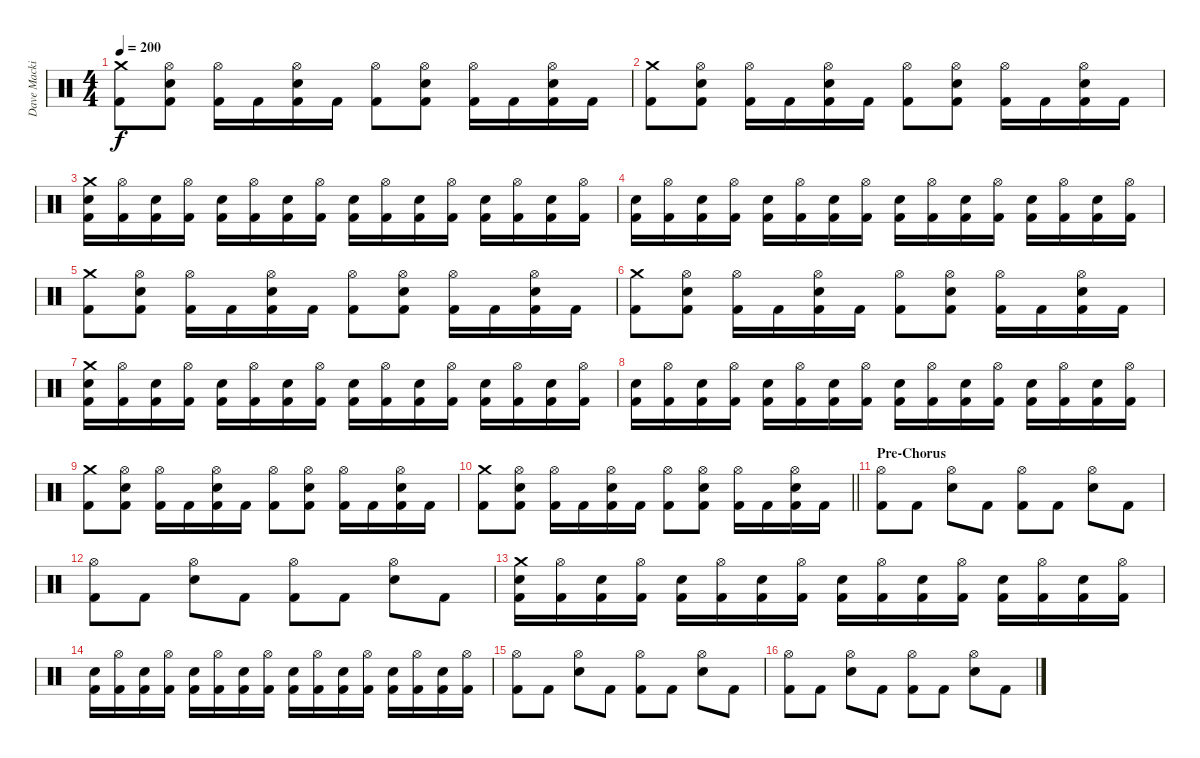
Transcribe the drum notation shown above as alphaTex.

\track ("Dave Mackintosh | Drums" "Dave Macki") {instrument percussion}
\staff {score}
\articulation defaults
\ts (4 4)
\tempo 200
\clef neutral
\ks c
("Crash medium (hit)" "Kick (hit) 2").8{dy f} ("Hi-Hat (open)" "Snare (hit) 2" "Kick (hit) 2").8 ("Hi-Hat (open)" "Kick (hit) 2").16 "Kick (hit) 2".16 ("Hi-Hat (open)" "Snare (hit) 2" "Kick (hit) 2").16 "Kick (hit) 2".16 ("Hi-Hat (open)" "Kick (hit) 2").8 ("Hi-Hat (open)" "Snare (hit) 2" "Kick (hit) 2").8 ("Hi-Hat (open)" "Kick (hit) 2").16 "Kick (hit) 2".16 ("Hi-Hat (open)" "Snare (hit) 2" "Kick (hit) 2").16 "Kick (hit) 2".16 |
("Crash medium (hit)" "Kick (hit) 2").8 ("Hi-Hat (open)" "Snare (hit) 2" "Kick (hit) 2").8 ("Hi-Hat (open)" "Kick (hit) 2").16 "Kick (hit) 2".16 ("Hi-Hat (open)" "Snare (hit) 2" "Kick (hit) 2").16 "Kick (hit) 2".16 ("Hi-Hat (open)" "Kick (hit) 2").8 ("Hi-Hat (open)" "Snare (hit) 2" "Kick (hit) 2").8 ("Hi-Hat (open)" "Kick (hit) 2").16 "Kick (hit) 2".16 ("Hi-Hat (open)" "Snare (hit) 2" "Kick (hit) 2").16 "Kick (hit) 2".16 |
("Crash medium (hit)" "Snare (hit) 2" "Kick (hit) 2").16 ("Hi-Hat (open)" "Kick (hit) 2").16 ("Snare (hit) 2" "Kick (hit) 2").16 ("Hi-Hat (open)" "Kick (hit) 2").16 ("Snare (hit) 2" "Kick (hit) 2").16 ("Hi-Hat (open)" "Kick (hit) 2").16 ("Snare (hit) 2" "Kick (hit) 2").16 ("Hi-Hat (open)" "Kick (hit) 2").16 ("Snare (hit) 2" "Kick (hit) 2").16 ("Hi-Hat (open)" "Kick (hit) 2").16 ("Snare (hit) 2" "Kick (hit) 2").16 ("Hi-Hat (open)" "Kick (hit) 2").16 ("Snare (hit) 2" "Kick (hit) 2").16 ("Hi-Hat (open)" "Kick (hit) 2").16 ("Snare (hit) 2" "Kick (hit) 2").16 ("Hi-Hat (open)" "Kick (hit) 2").16 |
("Snare (hit) 2" "Kick (hit) 2").16 ("Hi-Hat (open)" "Kick (hit) 2").16 ("Snare (hit) 2" "Kick (hit) 2").16 ("Hi-Hat (open)" "Kick (hit) 2").16 ("Snare (hit) 2" "Kick (hit) 2").16 ("Hi-Hat (open)" "Kick (hit) 2").16 ("Snare (hit) 2" "Kick (hit) 2").16 ("Hi-Hat (open)" "Kick (hit) 2").16 ("Snare (hit) 2" "Kick (hit) 2").16 ("Hi-Hat (open)" "Kick (hit) 2").16 ("Snare (hit) 2" "Kick (hit) 2").16 ("Hi-Hat (open)" "Kick (hit) 2").16 ("Snare (hit) 2" "Kick (hit) 2").16 ("Hi-Hat (open)" "Kick (hit) 2").16 ("Snare (hit) 2" "Kick (hit) 2").16 ("Hi-Hat (open)" "Kick (hit) 2").16 |
("Crash medium (hit)" "Kick (hit) 2").8 ("Hi-Hat (open)" "Snare (hit) 2" "Kick (hit) 2").8 ("Hi-Hat (open)" "Kick (hit) 2").16 "Kick (hit) 2".16 ("Hi-Hat (open)" "Snare (hit) 2" "Kick (hit) 2").16 "Kick (hit) 2".16 ("Hi-Hat (open)" "Kick (hit) 2").8 ("Hi-Hat (open)" "Snare (hit) 2" "Kick (hit) 2").8 ("Hi-Hat (open)" "Kick (hit) 2").16 "Kick (hit) 2".16 ("Hi-Hat (open)" "Snare (hit) 2" "Kick (hit) 2").16 "Kick (hit) 2".16 |
("Crash medium (hit)" "Kick (hit) 2").8 ("Hi-Hat (open)" "Snare (hit) 2" "Kick (hit) 2").8 ("Hi-Hat (open)" "Kick (hit) 2").16 "Kick (hit) 2".16 ("Hi-Hat (open)" "Snare (hit) 2" "Kick (hit) 2").16 "Kick (hit) 2".16 ("Hi-Hat (open)" "Kick (hit) 2").8 ("Hi-Hat (open)" "Snare (hit) 2" "Kick (hit) 2").8 ("Hi-Hat (open)" "Kick (hit) 2").16 "Kick (hit) 2".16 ("Hi-Hat (open)" "Snare (hit) 2" "Kick (hit) 2").16 "Kick (hit) 2".16 |
("Crash medium (hit)" "Snare (hit) 2" "Kick (hit) 2").16 ("Hi-Hat (open)" "Kick (hit) 2").16 ("Snare (hit) 2" "Kick (hit) 2").16 ("Hi-Hat (open)" "Kick (hit) 2").16 ("Snare (hit) 2" "Kick (hit) 2").16 ("Hi-Hat (open)" "Kick (hit) 2").16 ("Snare (hit) 2" "Kick (hit) 2").16 ("Hi-Hat (open)" "Kick (hit) 2").16 ("Snare (hit) 2" "Kick (hit) 2").16 ("Hi-Hat (open)" "Kick (hit) 2").16 ("Snare (hit) 2" "Kick (hit) 2").16 ("Hi-Hat (open)" "Kick (hit) 2").16 ("Snare (hit) 2" "Kick (hit) 2").16 ("Hi-Hat (open)" "Kick (hit) 2").16 ("Snare (hit) 2" "Kick (hit) 2").16 ("Hi-Hat (open)" "Kick (hit) 2").16 |
("Snare (hit) 2" "Kick (hit) 2").16 ("Hi-Hat (open)" "Kick (hit) 2").16 ("Snare (hit) 2" "Kick (hit) 2").16 ("Hi-Hat (open)" "Kick (hit) 2").16 ("Snare (hit) 2" "Kick (hit) 2").16 ("Hi-Hat (open)" "Kick (hit) 2").16 ("Snare (hit) 2" "Kick (hit) 2").16 ("Hi-Hat (open)" "Kick (hit) 2").16 ("Snare (hit) 2" "Kick (hit) 2").16 ("Hi-Hat (open)" "Kick (hit) 2").16 ("Snare (hit) 2" "Kick (hit) 2").16 ("Hi-Hat (open)" "Kick (hit) 2").16 ("Snare (hit) 2" "Kick (hit) 2").16 ("Hi-Hat (open)" "Kick (hit) 2").16 ("Snare (hit) 2" "Kick (hit) 2").16 ("Hi-Hat (open)" "Kick (hit) 2").16 |
("Crash medium (hit)" "Kick (hit) 2").8 ("Hi-Hat (open)" "Snare (hit) 2" "Kick (hit) 2").8 ("Hi-Hat (open)" "Kick (hit) 2").16 "Kick (hit) 2".16 ("Hi-Hat (open)" "Snare (hit) 2" "Kick (hit) 2").16 "Kick (hit) 2".16 ("Hi-Hat (open)" "Kick (hit) 2").8 ("Hi-Hat (open)" "Snare (hit) 2" "Kick (hit) 2").8 ("Hi-Hat (open)" "Kick (hit) 2").16 "Kick (hit) 2".16 ("Hi-Hat (open)" "Snare (hit) 2" "Kick (hit) 2").16 "Kick (hit) 2".16 |
\barLineRight lightlight
("Crash medium (hit)" "Kick (hit) 2").8 ("Hi-Hat (open)" "Snare (hit) 2" "Kick (hit) 2").8 ("Hi-Hat (open)" "Kick (hit) 2").16 "Kick (hit) 2".16 ("Hi-Hat (open)" "Snare (hit) 2" "Kick (hit) 2").16 "Kick (hit) 2".16 ("Hi-Hat (open)" "Kick (hit) 2").8 ("Hi-Hat (open)" "Snare (hit) 2" "Kick (hit) 2").8 ("Hi-Hat (open)" "Kick (hit) 2").16 "Kick (hit) 2".16 ("Hi-Hat (open)" "Snare (hit) 2" "Kick (hit) 2").16 "Kick (hit) 2".16 |
\section ("" "Pre-Chorus")
("Hi-Hat (open)" "Kick (hit) 2").8 "Kick (hit) 2".8 ("Hi-Hat (open)" "Snare (hit) 2").8 "Kick (hit) 2".8 ("Hi-Hat (open)" "Kick (hit) 2").8 "Kick (hit) 2".8 ("Hi-Hat (open)" "Snare (hit) 2").8 "Kick (hit) 2".8 |
("Hi-Hat (open)" "Kick (hit) 2").8 "Kick (hit) 2".8 ("Hi-Hat (open)" "Snare (hit) 2").8 "Kick (hit) 2".8 ("Hi-Hat (open)" "Kick (hit) 2").8 "Kick (hit) 2".8 ("Hi-Hat (open)" "Snare (hit) 2").8 "Kick (hit) 2".8 |
("Crash medium (hit)" "Snare (hit) 2" "Kick (hit) 2").16 ("Hi-Hat (open)" "Kick (hit) 2").16 ("Snare (hit) 2" "Kick (hit) 2").16 ("Hi-Hat (open)" "Kick (hit) 2").16 ("Snare (hit) 2" "Kick (hit) 2").16 ("Hi-Hat (open)" "Kick (hit) 2").16 ("Snare (hit) 2" "Kick (hit) 2").16 ("Hi-Hat (open)" "Kick (hit) 2").16 ("Snare (hit) 2" "Kick (hit) 2").16 ("Hi-Hat (open)" "Kick (hit) 2").16 ("Snare (hit) 2" "Kick (hit) 2").16 ("Hi-Hat (open)" "Kick (hit) 2").16 ("Snare (hit) 2" "Kick (hit) 2").16 ("Hi-Hat (open)" "Kick (hit) 2").16 ("Snare (hit) 2" "Kick (hit) 2").16 ("Hi-Hat (open)" "Kick (hit) 2").16 |
("Snare (hit) 2" "Kick (hit) 2").16 ("Hi-Hat (open)" "Kick (hit) 2").16 ("Snare (hit) 2" "Kick (hit) 2").16 ("Hi-Hat (open)" "Kick (hit) 2").16 ("Snare (hit) 2" "Kick (hit) 2").16 ("Hi-Hat (open)" "Kick (hit) 2").16 ("Snare (hit) 2" "Kick (hit) 2").16 ("Hi-Hat (open)" "Kick (hit) 2").16 ("Snare (hit) 2" "Kick (hit) 2").16 ("Hi-Hat (open)" "Kick (hit) 2").16 ("Snare (hit) 2" "Kick (hit) 2").16 ("Hi-Hat (open)" "Kick (hit) 2").16 ("Snare (hit) 2" "Kick (hit) 2").16 ("Hi-Hat (open)" "Kick (hit) 2").16 ("Snare (hit) 2" "Kick (hit) 2").16 ("Hi-Hat (open)" "Kick (hit) 2").16 |
("Hi-Hat (open)" "Kick (hit) 2").8 "Kick (hit) 2".8 ("Hi-Hat (open)" "Snare (hit) 2").8 "Kick (hit) 2".8 ("Hi-Hat (open)" "Kick (hit) 2").8 "Kick (hit) 2".8 ("Hi-Hat (open)" "Snare (hit) 2").8 "Kick (hit) 2".8 |
("Hi-Hat (open)" "Kick (hit) 2").8 "Kick (hit) 2".8 ("Hi-Hat (open)" "Snare (hit) 2").8 "Kick (hit) 2".8 ("Hi-Hat (open)" "Kick (hit) 2").8 "Kick (hit) 2".8 ("Hi-Hat (open)" "Snare (hit) 2").8 "Kick (hit) 2".8
